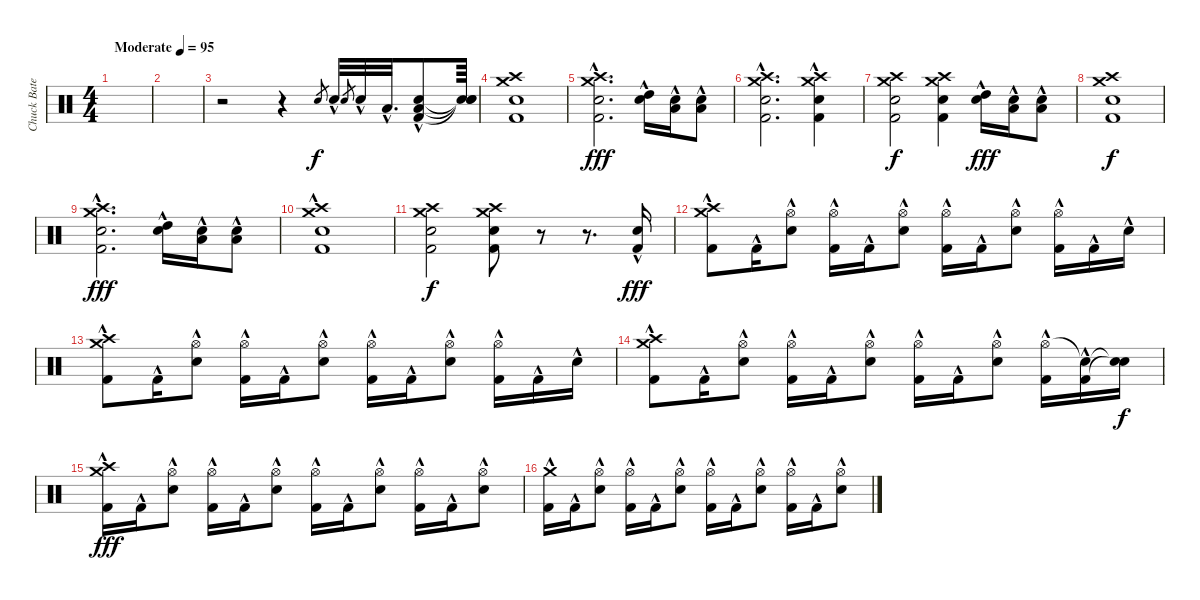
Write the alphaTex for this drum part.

\track ("Chuck Bateria" "Chuck Bate") {instrument percussion}
\staff {score}
\articulation defaults
\ts (4 4)
\tempo (95 "Moderate")
\clef neutral
\ks c
|
|
r.2 r.4 "Electric Snare (hit)".8{gr} "Electric Snare (hit)"{hac}.32 "Electric Snare (hit)".8{gr} "Electric Snare (hit)"{hac}.32 "Low Floor Tom (hit)"{hac}.32{d} ("Low Floor Tom (hit)"{hac} "Electric Snare (hit)"{hac} "Kick (hit) 2"{hac}).8 ("Snare (hit)"{t} "Snare (hit)"{t} "Snare (hit)"{t}).64{dy f} |
("Crash medium (hit)" "Crash high (hit)" "Electric Snare (hit)" "Kick (hit) 2").1 |
("Crash medium (hit)"{hac} "Crash high (hit)"{hac} "Electric Snare (hit)"{hac} "Kick (hit) 2"{hac}).2{d dy fff} ("High Tom (hit)"{hac} "Electric Snare (hit)").16 ("Low Tom (hit)"{hac} "Electric Snare (hit)").16 ("Low Floor Tom (hit)"{hac} "Electric Snare (hit)").8 |
("Crash medium (hit)"{hac} "Crash high (hit)"{hac} "Electric Snare (hit)"{hac} "Kick (hit) 2"{hac}).2{d} ("Crash medium (hit)"{hac} "Crash high (hit)"{hac} "Electric Snare (hit)"{hac} "Kick (hit) 2"{hac}).4 |
("Crash medium (hit)" "Crash high (hit)" "Electric Snare (hit)" "Kick (hit) 2").2{dy f} ("Crash medium (hit)" "Crash high (hit)" "Electric Snare (hit)" "Kick (hit) 2").4 ("High Tom (hit)"{hac} "Electric Snare (hit)").16{dy fff} ("Low Tom (hit)"{hac} "Electric Snare (hit)").16 ("Low Floor Tom (hit)"{hac} "Electric Snare (hit)").8 |
("Crash medium (hit)" "Crash high (hit)" "Electric Snare (hit)" "Kick (hit) 2").1{dy f} |
("Crash medium (hit)"{hac} "Crash high (hit)"{hac} "Electric Snare (hit)"{hac} "Kick (hit) 2"{hac}).2{d dy fff} ("High Tom (hit)"{hac} "Electric Snare (hit)").16 ("Low Tom (hit)"{hac} "Electric Snare (hit)").16 ("Low Floor Tom (hit)"{hac} "Electric Snare (hit)").8 |
("Crash medium (hit)"{hac} "Crash high (hit)"{hac} "Electric Snare (hit)"{hac} "Kick (hit) 2"{hac}).1 |
("Crash medium (hit)" "Crash high (hit)" "Electric Snare (hit)" "Kick (hit) 2").2{dy f} ("Crash medium (hit)" "Crash high (hit)" "Electric Snare (hit)" "Kick (hit) 2").8 r.8 r.8{d} ("Electric Snare (hit)"{hac} "Kick (hit) 2"{hac}).16{dy fff} |
("Crash medium (hit)" "Crash high (hit)" "Kick (hit) 2"{hac}).8 "Kick (hit) 2"{hac}.16 ("Hi-Hat (open)" "Electric Snare (hit)"{hac}).8 ("Hi-Hat (open)" "Kick (hit) 2"{hac}).16 "Kick (hit) 2"{hac}.16 ("Hi-Hat (open)" "Electric Snare (hit)"{hac}).8 ("Hi-Hat (open)" "Kick (hit) 2"{hac}).16 "Kick (hit) 2"{hac}.16 ("Hi-Hat (open)" "Electric Snare (hit)"{hac}).8 ("Hi-Hat (open)" "Kick (hit) 2"{hac}).16 "Kick (hit) 2"{hac}.16 "Electric Snare (hit)"{hac}.16 |
("Crash medium (hit)" "Crash high (hit)" "Kick (hit) 2"{hac}).8 "Kick (hit) 2"{hac}.16 ("Hi-Hat (open)" "Electric Snare (hit)"{hac}).8 ("Hi-Hat (open)" "Kick (hit) 2"{hac}).16 "Kick (hit) 2"{hac}.16 ("Hi-Hat (open)" "Electric Snare (hit)"{hac}).8 ("Hi-Hat (open)" "Kick (hit) 2"{hac}).16 "Kick (hit) 2"{hac}.16 ("Hi-Hat (open)" "Electric Snare (hit)"{hac}).8 ("Hi-Hat (open)" "Kick (hit) 2"{hac}).16 "Kick (hit) 2"{hac}.16 "Electric Snare (hit)"{hac}.16 |
("Crash medium (hit)" "Crash high (hit)" "Kick (hit) 2"{hac}).8 "Kick (hit) 2"{hac}.16 ("Hi-Hat (open)" "Electric Snare (hit)"{hac}).8 ("Hi-Hat (open)" "Kick (hit) 2"{hac}).16 "Kick (hit) 2"{hac}.16 ("Hi-Hat (open)" "Electric Snare (hit)"{hac}).8 ("Hi-Hat (open)" "Kick (hit) 2"{hac}).16 "Kick (hit) 2"{hac}.16 ("Hi-Hat (open)" "Electric Snare (hit)"{hac}).8 ("Hi-Hat (open)" "Kick (hit) 2"{hac}).16 ("Snare (hit)"{t} "Kick (hit) 2"{hac}).16 ("Snare (hit)"{t} "Snare (hit)"{t}).16{dy f} |
("Crash medium (hit)" "Crash high (hit)" "Kick (hit) 2"{hac}).16{dy fff} "Kick (hit) 2"{hac}.16 ("Hi-Hat (open)" "Electric Snare (hit)"{hac}).8 ("Hi-Hat (open)" "Kick (hit) 2"{hac}).16 "Kick (hit) 2"{hac}.16 ("Hi-Hat (open)" "Electric Snare (hit)"{hac}).8 ("Hi-Hat (open)" "Kick (hit) 2"{hac}).16 "Kick (hit) 2"{hac}.16 ("Hi-Hat (open)" "Electric Snare (hit)"{hac}).8 ("Hi-Hat (open)" "Kick (hit) 2"{hac}).16 "Kick (hit) 2"{hac}.16 ("Hi-Hat (open)" "Electric Snare (hit)"{hac}).8 |
("Crash medium (hit)" "Kick (hit) 2"{hac}).16 "Kick (hit) 2"{hac}.16 ("Hi-Hat (open)" "Electric Snare (hit)"{hac}).8 ("Hi-Hat (open)" "Kick (hit) 2"{hac}).16 "Kick (hit) 2"{hac}.16 ("Hi-Hat (open)" "Electric Snare (hit)"{hac}).8 ("Hi-Hat (open)" "Kick (hit) 2"{hac}).16 "Kick (hit) 2"{hac}.16 ("Hi-Hat (open)" "Electric Snare (hit)"{hac}).8 ("Hi-Hat (open)" "Kick (hit) 2"{hac}).16 "Kick (hit) 2"{hac}.16 ("Hi-Hat (open)" "Electric Snare (hit)"{hac}).8
